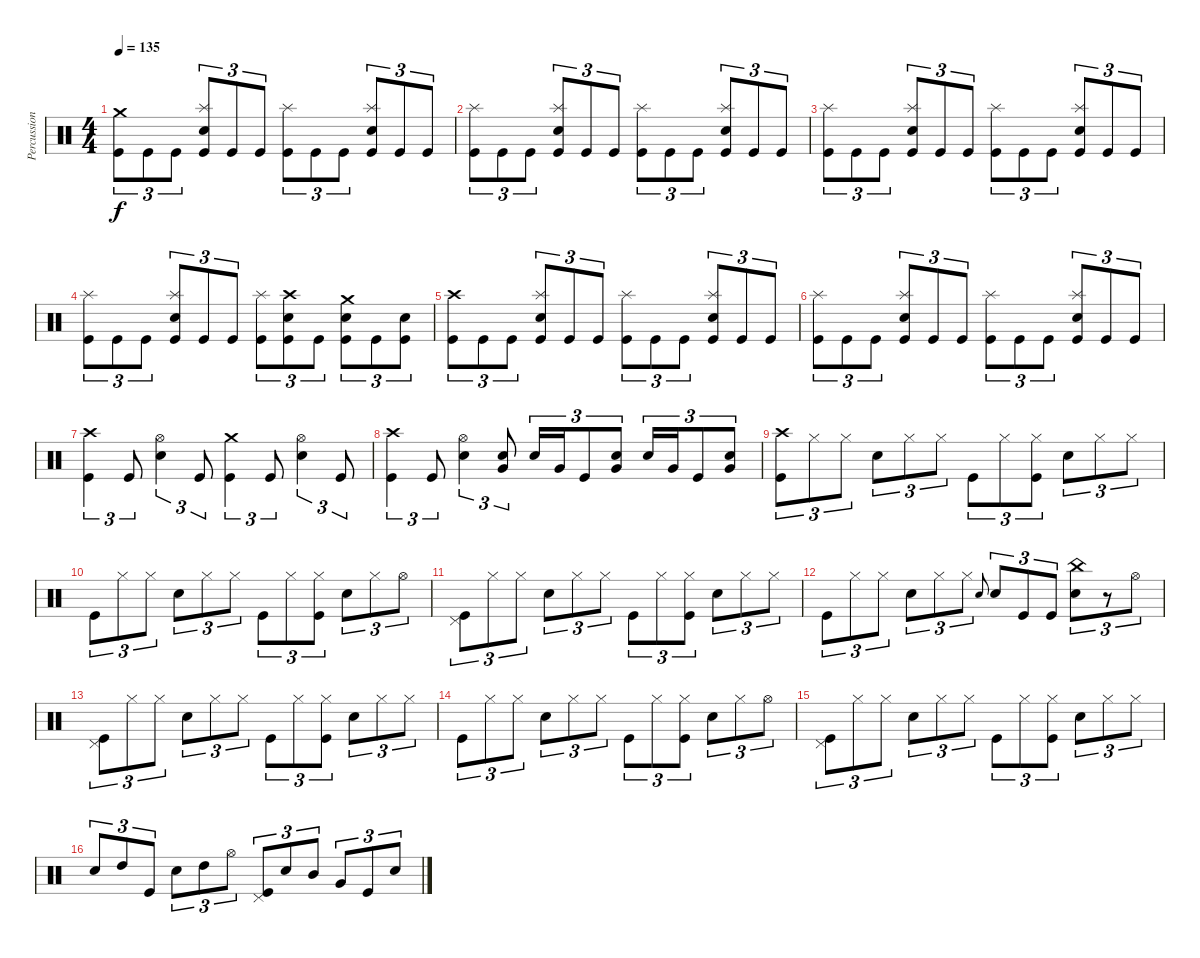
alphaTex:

\track ("Percussion" "Percussion") {instrument percussion}
\staff {score}
\articulation defaults
\ts (4 4)
\tempo 135
\clef neutral
\ks c
("Crash medium (hit)" "Kick (hit)").8{tu (3 2) dy f} "Kick (hit)".8{tu (3 2)} "Kick (hit)".8{tu (3 2)} ("Splash (hit)" "Snare (hit) 2" "Kick (hit)").8{tu (3 2)} "Kick (hit)".8{tu (3 2)} "Kick (hit)".8{tu (3 2)} ("Splash (hit)" "Kick (hit)").8{tu (3 2)} "Kick (hit)".8{tu (3 2)} "Kick (hit)".8{tu (3 2)} ("Splash (hit)" "Snare (hit) 2" "Kick (hit)").8{tu (3 2)} "Kick (hit)".8{tu (3 2)} "Kick (hit)".8{tu (3 2)} |
("Splash (hit)" "Kick (hit)").8{tu (3 2)} "Kick (hit)".8{tu (3 2)} "Kick (hit)".8{tu (3 2)} ("Splash (hit)" "Snare (hit) 2" "Kick (hit)").8{tu (3 2)} "Kick (hit)".8{tu (3 2)} "Kick (hit)".8{tu (3 2)} ("Splash (hit)" "Kick (hit)").8{tu (3 2)} "Kick (hit)".8{tu (3 2)} "Kick (hit)".8{tu (3 2)} ("Splash (hit)" "Snare (hit) 2" "Kick (hit)").8{tu (3 2)} "Kick (hit)".8{tu (3 2)} "Kick (hit)".8{tu (3 2)} |
("Splash (hit)" "Kick (hit)").8{tu (3 2)} "Kick (hit)".8{tu (3 2)} "Kick (hit)".8{tu (3 2)} ("Splash (hit)" "Snare (hit) 2" "Kick (hit)").8{tu (3 2)} "Kick (hit)".8{tu (3 2)} "Kick (hit)".8{tu (3 2)} ("Splash (hit)" "Kick (hit)").8{tu (3 2)} "Kick (hit)".8{tu (3 2)} "Kick (hit)".8{tu (3 2)} ("Splash (hit)" "Snare (hit) 2" "Kick (hit)").8{tu (3 2)} "Kick (hit)".8{tu (3 2)} "Kick (hit)".8{tu (3 2)} |
("Splash (hit)" "Kick (hit)").8{tu (3 2)} "Kick (hit)".8{tu (3 2)} "Kick (hit)".8{tu (3 2)} ("Splash (hit)" "Snare (hit) 2" "Kick (hit)").8{tu (3 2)} "Kick (hit)".8{tu (3 2)} "Kick (hit)".8{tu (3 2)} ("Splash (hit)" "Kick (hit)").8{tu (3 2)} ("Crash high (hit)" "Snare (hit) 2" "Kick (hit)").8{tu (3 2)} "Kick (hit)".8{tu (3 2)} ("Crash medium (hit)" "Snare (hit) 2" "Kick (hit)").8{tu (3 2)} "Kick (hit)".8{tu (3 2)} ("Snare (hit) 2" "Kick (hit)").8{tu (3 2)} |
("Crash high (hit)" "Kick (hit)").8{tu (3 2)} "Kick (hit)".8{tu (3 2)} "Kick (hit)".8{tu (3 2)} ("Splash (hit)" "Snare (hit) 2" "Kick (hit)").8{tu (3 2)} "Kick (hit)".8{tu (3 2)} "Kick (hit)".8{tu (3 2)} ("Splash (hit)" "Kick (hit)").8{tu (3 2)} "Kick (hit)".8{tu (3 2)} "Kick (hit)".8{tu (3 2)} ("Splash (hit)" "Snare (hit) 2" "Kick (hit)").8{tu (3 2)} "Kick (hit)".8{tu (3 2)} "Kick (hit)".8{tu (3 2)} |
("Splash (hit)" "Kick (hit)").8{tu (3 2)} "Kick (hit)".8{tu (3 2)} "Kick (hit)".8{tu (3 2)} ("Splash (hit)" "Snare (hit) 2" "Kick (hit)").8{tu (3 2)} "Kick (hit)".8{tu (3 2)} "Kick (hit)".8{tu (3 2)} ("Splash (hit)" "Kick (hit)").8{tu (3 2)} "Kick (hit)".8{tu (3 2)} "Kick (hit)".8{tu (3 2)} ("Splash (hit)" "Snare (hit) 2" "Kick (hit)").8{tu (3 2)} "Kick (hit)".8{tu (3 2)} "Kick (hit)".8{tu (3 2)} |
("Crash high (hit)" "Kick (hit)").4{tu (3 2)} "Kick (hit)".8{tu (3 2)} ("Hi-Hat (open)" "Snare (hit) 2").4{tu (3 2)} "Kick (hit)".8{tu (3 2)} ("Crash medium (hit)" "Kick (hit)").4{tu (3 2)} "Kick (hit)".8{tu (3 2)} ("Hi-Hat (open)" "Snare (hit) 2").4{tu (3 2)} "Kick (hit)".8{tu (3 2)} |
("Crash high (hit)" "Kick (hit)").4{tu (3 2)} "Kick (hit)".8{tu (3 2)} ("Hi-Hat (open)" "Snare (hit) 2").4{tu (3 2)} ("Snare (hit) 2" "Very Low Tom (hit)").8{tu (3 2)} "Snare (hit) 2".16{tu (3 2)} "Very Low Tom (hit)".16{tu (3 2)} "Kick (hit)".8{tu (3 2)} ("Snare (hit) 2" "Very Low Tom (hit)").8{tu (3 2)} "Snare (hit) 2".16{tu (3 2)} "Very Low Tom (hit)".16{tu (3 2)} "Kick (hit)".8{tu (3 2)} ("Snare (hit) 2" "Very Low Tom (hit)").8{tu (3 2)} |
("Crash high (hit)" "Kick (hit)").8{tu (3 2)} "Hi-Hat (closed)".8{tu (3 2)} "Hi-Hat (closed)".8{tu (3 2)} "Snare (hit) 2".8{tu (3 2)} "Hi-Hat (closed)".8{tu (3 2)} "Hi-Hat (closed)".8{tu (3 2)} "Kick (hit)".8{tu (3 2)} "Hi-Hat (closed)".8{tu (3 2)} ("Hi-Hat (closed)" "Kick (hit)").8{tu (3 2)} "Snare (hit) 2".8{tu (3 2)} "Hi-Hat (closed)".8{tu (3 2)} "Hi-Hat (closed)".8{tu (3 2)} |
"Kick (hit)".8{tu (3 2)} "Hi-Hat (closed)".8{tu (3 2)} "Hi-Hat (closed)".8{tu (3 2)} "Snare (hit) 2".8{tu (3 2)} "Hi-Hat (closed)".8{tu (3 2)} "Hi-Hat (closed)".8{tu (3 2)} "Kick (hit)".8{tu (3 2)} "Hi-Hat (closed)".8{tu (3 2)} ("Hi-Hat (closed)" "Kick (hit)").8{tu (3 2)} "Snare (hit) 2".8{tu (3 2)} "Hi-Hat (closed)".8{tu (3 2)} "Hi-Hat (open)".8{tu (3 2)} |
("Pedal Hi-Hat (hit)" "Kick (hit)").8{tu (3 2)} "Hi-Hat (closed)".8{tu (3 2)} "Hi-Hat (closed)".8{tu (3 2)} "Snare (hit) 2".8{tu (3 2)} "Hi-Hat (closed)".8{tu (3 2)} "Hi-Hat (closed)".8{tu (3 2)} "Kick (hit)".8{tu (3 2)} "Hi-Hat (closed)".8{tu (3 2)} ("Hi-Hat (closed)" "Kick (hit)").8{tu (3 2)} "Snare (hit) 2".8{tu (3 2)} "Hi-Hat (closed)".8{tu (3 2)} "Hi-Hat (closed)".8{tu (3 2)} |
"Kick (hit)".8{tu (3 2)} "Hi-Hat (closed)".8{tu (3 2)} "Hi-Hat (closed)".8{tu (3 2)} "Snare (hit) 2".8{tu (3 2)} "Hi-Hat (closed)".8{tu (3 2)} "Hi-Hat (closed)".8{tu (3 2)} "Snare (hit) 2".8{gr onbeat} "Snare (hit) 2".8{tu (3 2)} "Kick (hit)".8{tu (3 2)} "Kick (hit)".8{tu (3 2)} ("China (hit)" "Snare (hit) 2").8{tu (3 2)} r.8{tu (3 2)} "Hi-Hat (open)".8{tu (3 2)} |
("Pedal Hi-Hat (hit)" "Kick (hit)").8{tu (3 2)} "Hi-Hat (closed)".8{tu (3 2)} "Hi-Hat (closed)".8{tu (3 2)} "Snare (hit) 2".8{tu (3 2)} "Hi-Hat (closed)".8{tu (3 2)} "Hi-Hat (closed)".8{tu (3 2)} "Kick (hit)".8{tu (3 2)} "Hi-Hat (closed)".8{tu (3 2)} ("Hi-Hat (closed)" "Kick (hit)").8{tu (3 2)} "Snare (hit) 2".8{tu (3 2)} "Hi-Hat (closed)".8{tu (3 2)} "Hi-Hat (closed)".8{tu (3 2)} |
"Kick (hit)".8{tu (3 2)} "Hi-Hat (closed)".8{tu (3 2)} "Hi-Hat (closed)".8{tu (3 2)} "Snare (hit) 2".8{tu (3 2)} "Hi-Hat (closed)".8{tu (3 2)} "Hi-Hat (closed)".8{tu (3 2)} "Kick (hit)".8{tu (3 2)} "Hi-Hat (closed)".8{tu (3 2)} ("Hi-Hat (closed)" "Kick (hit)").8{tu (3 2)} "Snare (hit) 2".8{tu (3 2)} "Hi-Hat (closed)".8{tu (3 2)} "Hi-Hat (open)".8{tu (3 2)} |
("Pedal Hi-Hat (hit)" "Kick (hit)").8{tu (3 2)} "Hi-Hat (closed)".8{tu (3 2)} "Hi-Hat (closed)".8{tu (3 2)} "Snare (hit) 2".8{tu (3 2)} "Hi-Hat (closed)".8{tu (3 2)} "Hi-Hat (closed)".8{tu (3 2)} "Kick (hit)".8{tu (3 2)} "Hi-Hat (closed)".8{tu (3 2)} ("Hi-Hat (closed)" "Kick (hit)").8{tu (3 2)} "Snare (hit) 2".8{tu (3 2)} "Hi-Hat (closed)".8{tu (3 2)} "Hi-Hat (closed)".8{tu (3 2)} |
"Snare (hit) 2".8{tu (3 2)} "High Tom (hit)".8{tu (3 2)} "Kick (hit)".8{tu (3 2)} "Snare (hit) 2".8{tu (3 2)} "High Tom (hit)".8{tu (3 2)} "Hi-Hat (open)".8{tu (3 2)} ("Pedal Hi-Hat (hit)" "Kick (hit)").8{tu (3 2)} "Snare (hit) 2".8{tu (3 2)} "Mid Tom (hit)".8{tu (3 2)} "Very Low Tom (hit)".8{tu (3 2)} "Kick (hit)".8{tu (3 2)} "Snare (hit) 2".8{tu (3 2)}
